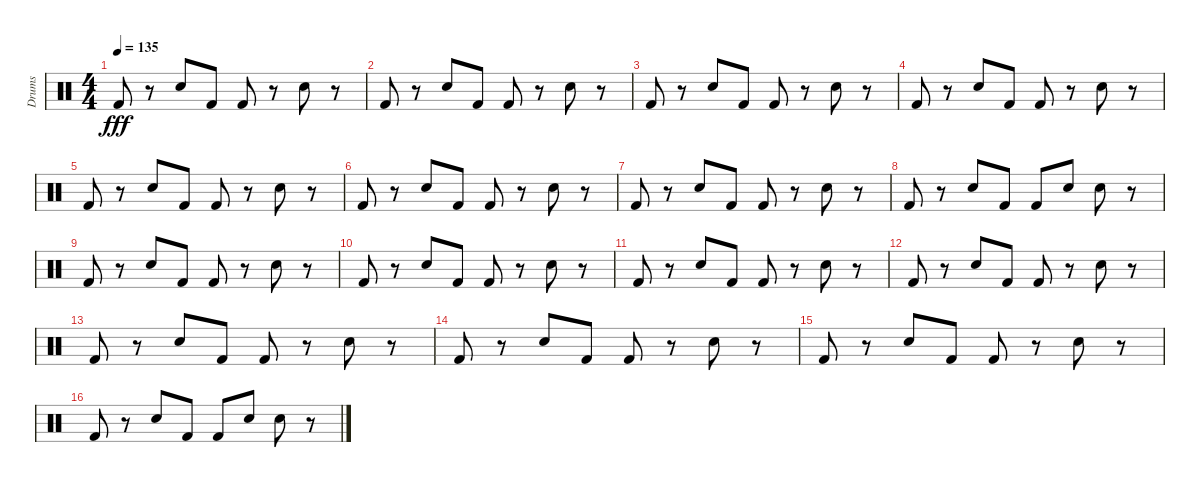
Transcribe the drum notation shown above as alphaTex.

\track ("Drums" "Drums") {instrument percussion}
\staff {score}
\articulation defaults
\ts (4 4)
\tempo 135
\clef neutral
\ks c "Kick (hit) 2".8{dy fff}
r.8 "Snare (hit) 2".8 "Kick (hit) 2".8 "Kick (hit) 2".8 r.8 "Snare (hit) 2".8 r.8 |
"Kick (hit) 2".8 r.8 "Snare (hit) 2".8 "Kick (hit) 2".8 "Kick (hit) 2".8 r.8 "Snare (hit) 2".8 r.8 |
"Kick (hit) 2".8 r.8 "Snare (hit) 2".8 "Kick (hit) 2".8 "Kick (hit) 2".8 r.8 "Snare (hit) 2".8 r.8 |
"Kick (hit) 2".8 r.8 "Snare (hit) 2".8 "Kick (hit) 2".8 "Kick (hit) 2".8 r.8 "Snare (hit) 2".8 r.8 |
"Kick (hit) 2".8 r.8 "Snare (hit) 2".8 "Kick (hit) 2".8 "Kick (hit) 2".8 r.8 "Snare (hit) 2".8 r.8 |
"Kick (hit) 2".8 r.8 "Snare (hit) 2".8 "Kick (hit) 2".8 "Kick (hit) 2".8 r.8 "Snare (hit) 2".8 r.8 |
"Kick (hit) 2".8 r.8 "Snare (hit) 2".8 "Kick (hit) 2".8 "Kick (hit) 2".8 r.8 "Snare (hit) 2".8 r.8 |
"Kick (hit) 2".8 r.8 "Snare (hit) 2".8 "Kick (hit) 2".8 "Kick (hit) 2".8 "Snare (hit) 2".8 "Snare (hit) 2".8 r.8 |
"Kick (hit) 2".8 r.8 "Snare (hit) 2".8 "Kick (hit) 2".8 "Kick (hit) 2".8 r.8 "Snare (hit) 2".8 r.8 |
"Kick (hit) 2".8 r.8 "Snare (hit) 2".8 "Kick (hit) 2".8 "Kick (hit) 2".8 r.8 "Snare (hit) 2".8 r.8 |
"Kick (hit) 2".8 r.8 "Snare (hit) 2".8 "Kick (hit) 2".8 "Kick (hit) 2".8 r.8 "Snare (hit) 2".8 r.8 |
"Kick (hit) 2".8 r.8 "Snare (hit) 2".8 "Kick (hit) 2".8 "Kick (hit) 2".8 r.8 "Snare (hit) 2".8 r.8 |
"Kick (hit) 2".8 r.8 "Snare (hit) 2".8 "Kick (hit) 2".8 "Kick (hit) 2".8 r.8 "Snare (hit) 2".8 r.8 |
"Kick (hit) 2".8 r.8 "Snare (hit) 2".8 "Kick (hit) 2".8 "Kick (hit) 2".8 r.8 "Snare (hit) 2".8 r.8 |
"Kick (hit) 2".8 r.8 "Snare (hit) 2".8 "Kick (hit) 2".8 "Kick (hit) 2".8 r.8 "Snare (hit) 2".8 r.8 |
"Kick (hit) 2".8 r.8 "Snare (hit) 2".8 "Kick (hit) 2".8 "Kick (hit) 2".8 "Snare (hit) 2".8 "Snare (hit) 2".8 r.8
